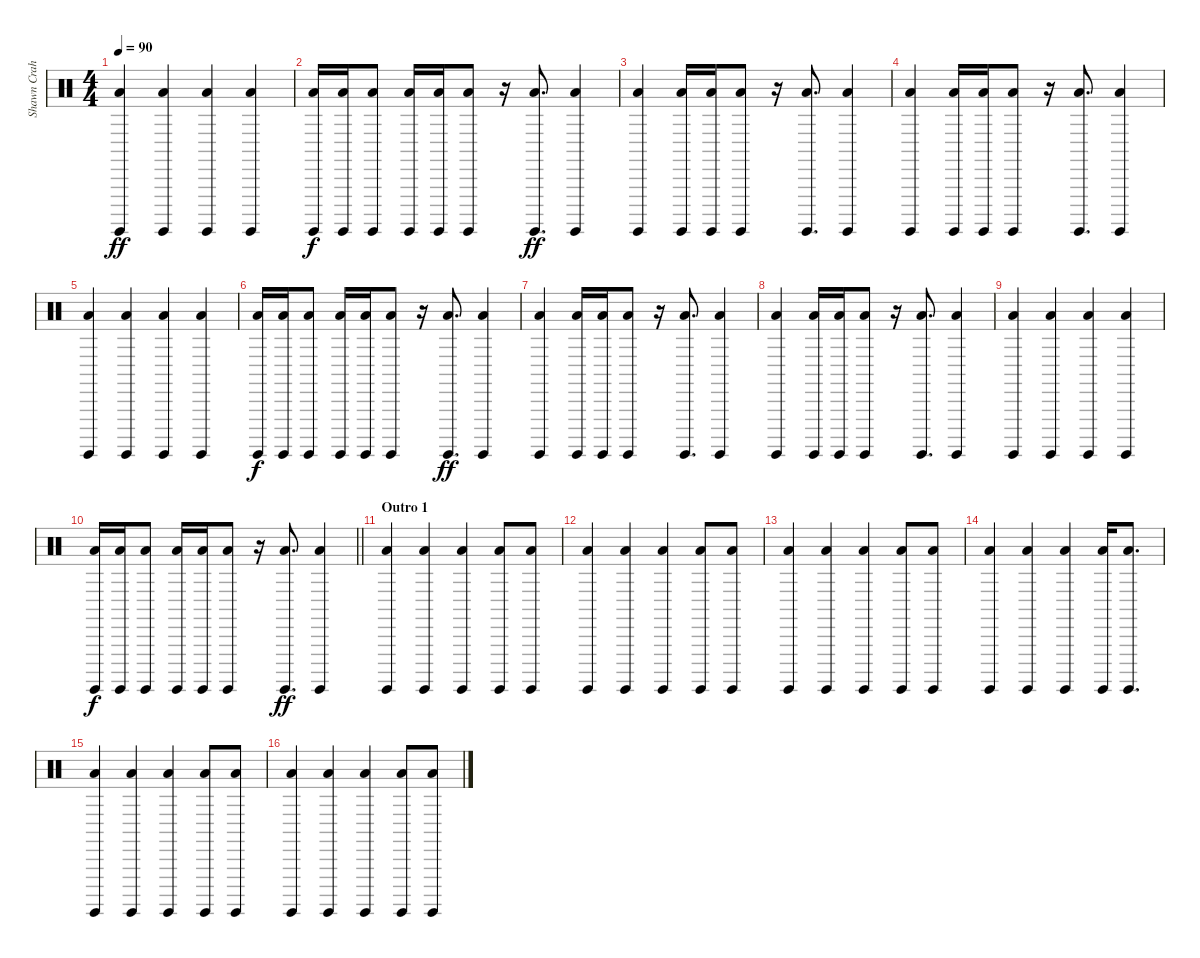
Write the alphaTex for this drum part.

\track ("Shawn Crahan" "Shawn Crah") {instrument percussion}
\staff {score}
\articulation defaults
\ts (4 4)
\tempo 90
\clef neutral
\ks c
("Surdo (hit)" "Low Floor Tom (hit)").4{dy ff} ("Surdo (hit)" "Low Floor Tom (hit)").4 ("Surdo (hit)" "Low Floor Tom (hit)").4 ("Surdo (hit)" "Low Floor Tom (hit)").4 |
("Surdo (hit)" "Low Floor Tom (hit)").16{dy f} ("Surdo (hit)" "Low Floor Tom (hit)").16 ("Surdo (hit)" "Low Floor Tom (hit)").8 ("Surdo (hit)" "Low Floor Tom (hit)").16 ("Surdo (hit)" "Low Floor Tom (hit)").16 ("Surdo (hit)" "Low Floor Tom (hit)").8 r.16 ("Surdo (hit)" "Low Floor Tom (hit)").8{d dy ff} ("Surdo (hit)" "Low Floor Tom (hit)").4 |
("Surdo (hit)" "Low Floor Tom (hit)").4 ("Surdo (hit)" "Low Floor Tom (hit)").16 ("Surdo (hit)" "Low Floor Tom (hit)").16 ("Surdo (hit)" "Low Floor Tom (hit)").8 r.16 ("Surdo (hit)" "Low Floor Tom (hit)").8{d} ("Surdo (hit)" "Low Floor Tom (hit)").4 |
("Surdo (hit)" "Low Floor Tom (hit)").4 ("Surdo (hit)" "Low Floor Tom (hit)").16 ("Surdo (hit)" "Low Floor Tom (hit)").16 ("Surdo (hit)" "Low Floor Tom (hit)").8 r.16 ("Surdo (hit)" "Low Floor Tom (hit)").8{d} ("Surdo (hit)" "Low Floor Tom (hit)").4 |
("Surdo (hit)" "Low Floor Tom (hit)").4 ("Surdo (hit)" "Low Floor Tom (hit)").4 ("Surdo (hit)" "Low Floor Tom (hit)").4 ("Surdo (hit)" "Low Floor Tom (hit)").4 |
("Surdo (hit)" "Low Floor Tom (hit)").16{dy f} ("Surdo (hit)" "Low Floor Tom (hit)").16 ("Surdo (hit)" "Low Floor Tom (hit)").8 ("Surdo (hit)" "Low Floor Tom (hit)").16 ("Surdo (hit)" "Low Floor Tom (hit)").16 ("Surdo (hit)" "Low Floor Tom (hit)").8 r.16 ("Surdo (hit)" "Low Floor Tom (hit)").8{d dy ff} ("Surdo (hit)" "Low Floor Tom (hit)").4 |
("Surdo (hit)" "Low Floor Tom (hit)").4 ("Surdo (hit)" "Low Floor Tom (hit)").16 ("Surdo (hit)" "Low Floor Tom (hit)").16 ("Surdo (hit)" "Low Floor Tom (hit)").8 r.16 ("Surdo (hit)" "Low Floor Tom (hit)").8{d} ("Surdo (hit)" "Low Floor Tom (hit)").4 |
("Surdo (hit)" "Low Floor Tom (hit)").4 ("Surdo (hit)" "Low Floor Tom (hit)").16 ("Surdo (hit)" "Low Floor Tom (hit)").16 ("Surdo (hit)" "Low Floor Tom (hit)").8 r.16 ("Surdo (hit)" "Low Floor Tom (hit)").8{d} ("Surdo (hit)" "Low Floor Tom (hit)").4 |
("Surdo (hit)" "Low Floor Tom (hit)").4 ("Surdo (hit)" "Low Floor Tom (hit)").4 ("Surdo (hit)" "Low Floor Tom (hit)").4 ("Surdo (hit)" "Low Floor Tom (hit)").4 |
\barLineRight lightlight
("Surdo (hit)" "Low Floor Tom (hit)").16{dy f} ("Surdo (hit)" "Low Floor Tom (hit)").16 ("Surdo (hit)" "Low Floor Tom (hit)").8 ("Surdo (hit)" "Low Floor Tom (hit)").16 ("Surdo (hit)" "Low Floor Tom (hit)").16 ("Surdo (hit)" "Low Floor Tom (hit)").8 r.16 ("Surdo (hit)" "Low Floor Tom (hit)").8{d dy ff} ("Surdo (hit)" "Low Floor Tom (hit)").4 |
\section ("" "Outro 1")
("Surdo (hit)" "Low Floor Tom (hit)").4 ("Surdo (hit)" "Low Floor Tom (hit)").4 ("Surdo (hit)" "Low Floor Tom (hit)").4 ("Surdo (hit)" "Low Floor Tom (hit)").8 ("Surdo (hit)" "Low Floor Tom (hit)").8 |
("Surdo (hit)" "Low Floor Tom (hit)").4 ("Surdo (hit)" "Low Floor Tom (hit)").4 ("Surdo (hit)" "Low Floor Tom (hit)").4 ("Surdo (hit)" "Low Floor Tom (hit)").8 ("Surdo (hit)" "Low Floor Tom (hit)").8 |
("Surdo (hit)" "Low Floor Tom (hit)").4 ("Surdo (hit)" "Low Floor Tom (hit)").4 ("Surdo (hit)" "Low Floor Tom (hit)").4 ("Surdo (hit)" "Low Floor Tom (hit)").8 ("Surdo (hit)" "Low Floor Tom (hit)").8 |
("Surdo (hit)" "Low Floor Tom (hit)").4 ("Surdo (hit)" "Low Floor Tom (hit)").4 ("Surdo (hit)" "Low Floor Tom (hit)").4 ("Surdo (hit)" "Low Floor Tom (hit)").16 ("Surdo (hit)" "Low Floor Tom (hit)").8{d} |
("Surdo (hit)" "Low Floor Tom (hit)").4 ("Surdo (hit)" "Low Floor Tom (hit)").4 ("Surdo (hit)" "Low Floor Tom (hit)").4 ("Surdo (hit)" "Low Floor Tom (hit)").8 ("Surdo (hit)" "Low Floor Tom (hit)").8 |
("Surdo (hit)" "Low Floor Tom (hit)").4 ("Surdo (hit)" "Low Floor Tom (hit)").4 ("Surdo (hit)" "Low Floor Tom (hit)").4 ("Surdo (hit)" "Low Floor Tom (hit)").8 ("Surdo (hit)" "Low Floor Tom (hit)").8
